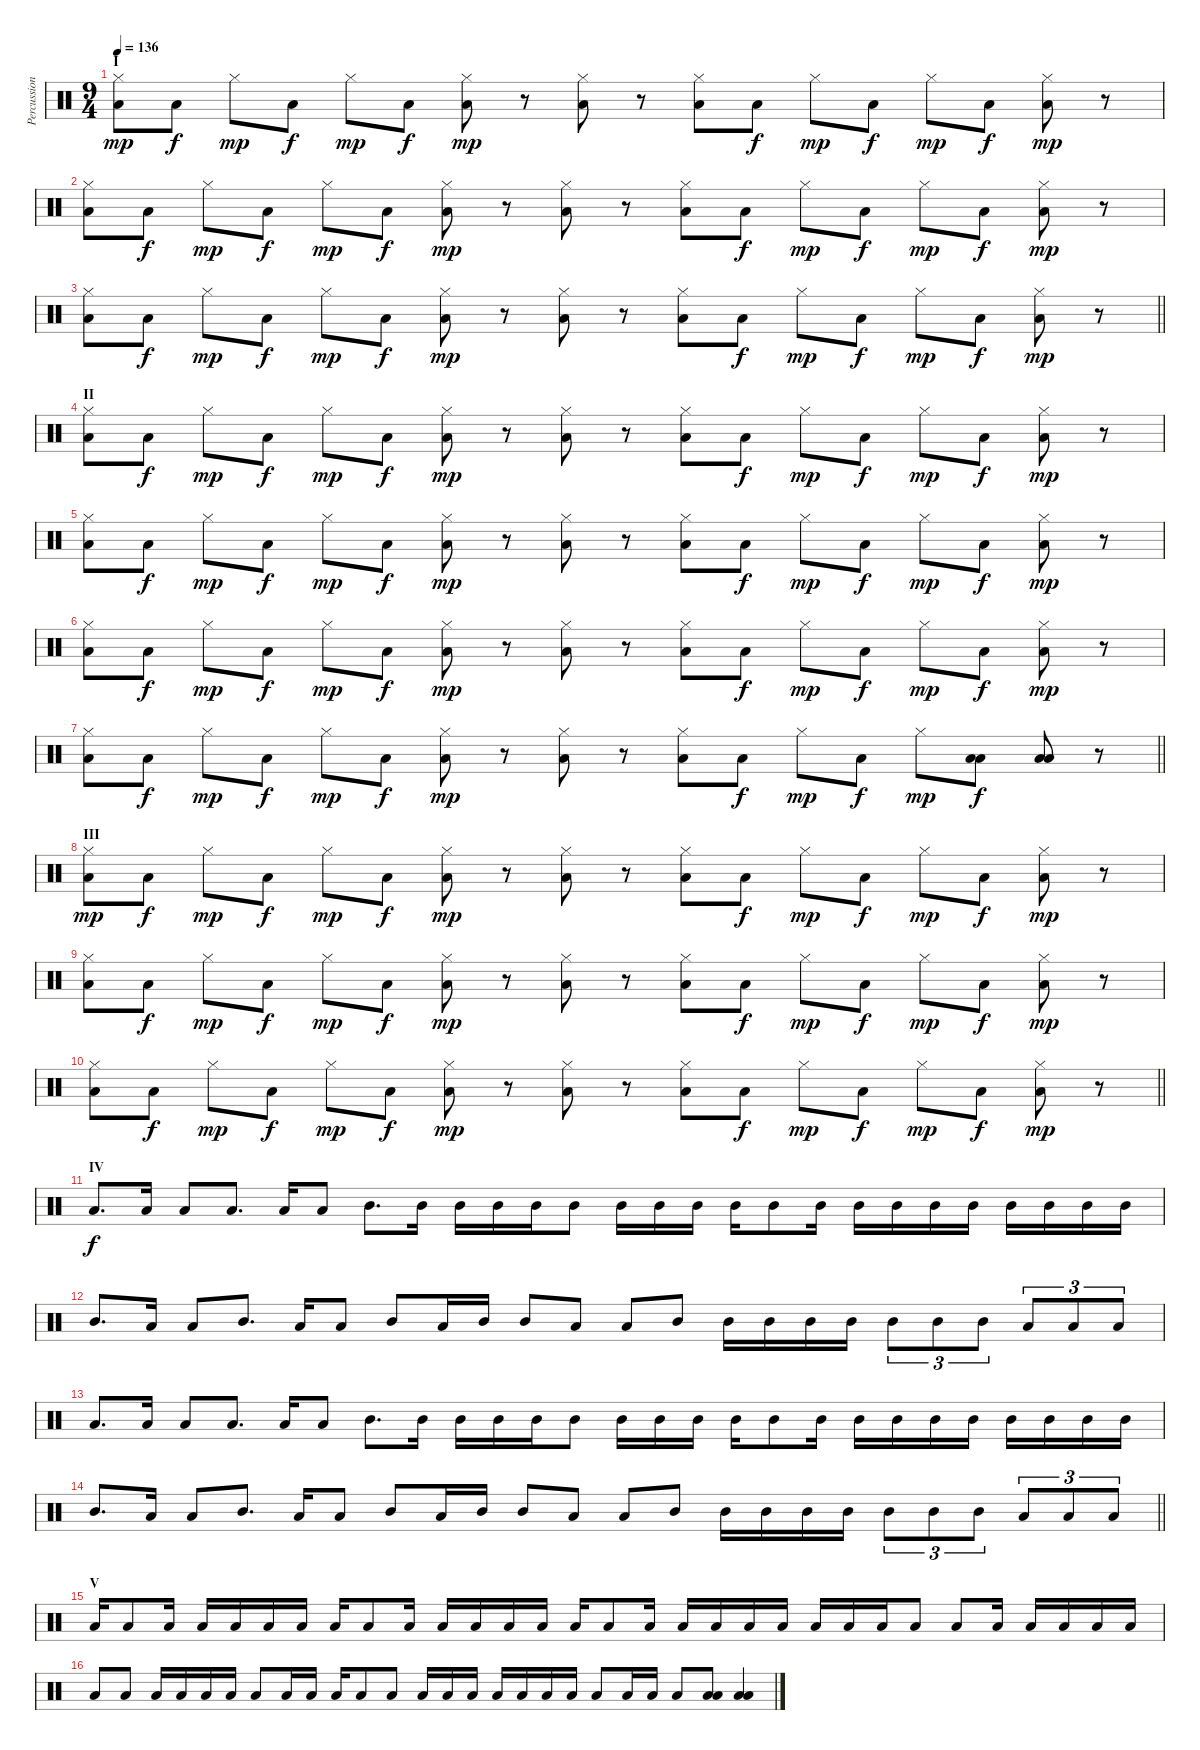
\track ("Percussions" "Percussion") {instrument percussion}
\staff {score}
\articulation defaults
\ts (9 4)
\section ("" "I")
\tempo 136
\clef neutral
\ks c
("Hi-Hat (closed)" "Low Tom (hit)").8{dy mp} "Low Tom (hit)".8{dy f} "Hi-Hat (closed)".8{dy mp} "Low Tom (hit)".8{dy f} "Hi-Hat (closed)".8{dy mp} "Low Tom (hit)".8{dy f} ("Hi-Hat (closed)" "Low Tom (hit)").8{dy mp} r.8 ("Hi-Hat (closed)" "Low Tom (hit)").8 r.8 ("Hi-Hat (closed)" "Low Tom (hit)").8 "Low Tom (hit)".8{dy f} "Hi-Hat (closed)".8{dy mp} "Low Tom (hit)".8{dy f} "Hi-Hat (closed)".8{dy mp} "Low Tom (hit)".8{dy f} ("Hi-Hat (closed)" "Low Tom (hit)").8{dy mp} r.8 |
("Hi-Hat (closed)" "Low Tom (hit)").8 "Low Tom (hit)".8{dy f} "Hi-Hat (closed)".8{dy mp} "Low Tom (hit)".8{dy f} "Hi-Hat (closed)".8{dy mp} "Low Tom (hit)".8{dy f} ("Hi-Hat (closed)" "Low Tom (hit)").8{dy mp} r.8 ("Hi-Hat (closed)" "Low Tom (hit)").8 r.8 ("Hi-Hat (closed)" "Low Tom (hit)").8 "Low Tom (hit)".8{dy f} "Hi-Hat (closed)".8{dy mp} "Low Tom (hit)".8{dy f} "Hi-Hat (closed)".8{dy mp} "Low Tom (hit)".8{dy f} ("Hi-Hat (closed)" "Low Tom (hit)").8{dy mp} r.8 |
\barLineRight lightlight
("Hi-Hat (closed)" "Low Tom (hit)").8 "Low Tom (hit)".8{dy f} "Hi-Hat (closed)".8{dy mp} "Low Tom (hit)".8{dy f} "Hi-Hat (closed)".8{dy mp} "Low Tom (hit)".8{dy f} ("Hi-Hat (closed)" "Low Tom (hit)").8{dy mp} r.8 ("Hi-Hat (closed)" "Low Tom (hit)").8 r.8 ("Hi-Hat (closed)" "Low Tom (hit)").8 "Low Tom (hit)".8{dy f} "Hi-Hat (closed)".8{dy mp} "Low Tom (hit)".8{dy f} "Hi-Hat (closed)".8{dy mp} "Low Tom (hit)".8{dy f} ("Hi-Hat (closed)" "Low Tom (hit)").8{dy mp} r.8 |
\section ("" "II")
("Hi-Hat (closed)" "Low Tom (hit)").8 "Low Tom (hit)".8{dy f} "Hi-Hat (closed)".8{dy mp} "Low Tom (hit)".8{dy f} "Hi-Hat (closed)".8{dy mp} "Low Tom (hit)".8{dy f} ("Hi-Hat (closed)" "Low Tom (hit)").8{dy mp} r.8 ("Hi-Hat (closed)" "Low Tom (hit)").8 r.8 ("Hi-Hat (closed)" "Low Tom (hit)").8 "Low Tom (hit)".8{dy f} "Hi-Hat (closed)".8{dy mp} "Low Tom (hit)".8{dy f} "Hi-Hat (closed)".8{dy mp} "Low Tom (hit)".8{dy f} ("Hi-Hat (closed)" "Low Tom (hit)").8{dy mp} r.8 |
("Hi-Hat (closed)" "Low Tom (hit)").8 "Low Tom (hit)".8{dy f} "Hi-Hat (closed)".8{dy mp} "Low Tom (hit)".8{dy f} "Hi-Hat (closed)".8{dy mp} "Low Tom (hit)".8{dy f} ("Hi-Hat (closed)" "Low Tom (hit)").8{dy mp} r.8 ("Hi-Hat (closed)" "Low Tom (hit)").8 r.8 ("Hi-Hat (closed)" "Low Tom (hit)").8 "Low Tom (hit)".8{dy f} "Hi-Hat (closed)".8{dy mp} "Low Tom (hit)".8{dy f} "Hi-Hat (closed)".8{dy mp} "Low Tom (hit)".8{dy f} ("Hi-Hat (closed)" "Low Tom (hit)").8{dy mp} r.8 |
("Hi-Hat (closed)" "Low Tom (hit)").8 "Low Tom (hit)".8{dy f} "Hi-Hat (closed)".8{dy mp} "Low Tom (hit)".8{dy f} "Hi-Hat (closed)".8{dy mp} "Low Tom (hit)".8{dy f} ("Hi-Hat (closed)" "Low Tom (hit)").8{dy mp} r.8 ("Hi-Hat (closed)" "Low Tom (hit)").8 r.8 ("Hi-Hat (closed)" "Low Tom (hit)").8 "Low Tom (hit)".8{dy f} "Hi-Hat (closed)".8{dy mp} "Low Tom (hit)".8{dy f} "Hi-Hat (closed)".8{dy mp} "Low Tom (hit)".8{dy f} ("Hi-Hat (closed)" "Low Tom (hit)").8{dy mp} r.8 |
\barLineRight lightlight
("Hi-Hat (closed)" "Low Tom (hit)").8 "Low Tom (hit)".8{dy f} "Hi-Hat (closed)".8{dy mp} "Low Tom (hit)".8{dy f} "Hi-Hat (closed)".8{dy mp} "Low Tom (hit)".8{dy f} ("Hi-Hat (closed)" "Low Tom (hit)").8{dy mp} r.8 ("Hi-Hat (closed)" "Low Tom (hit)").8 r.8 ("Hi-Hat (closed)" "Low Tom (hit)").8 "Low Tom (hit)".8{dy f} "Hi-Hat (closed)".8{dy mp} "Low Tom (hit)".8{dy f} "Hi-Hat (closed)".8{dy mp} ("Low Tom (hit)" "Low Tom (hit)").8{dy f} ("Low Tom (hit)" "Low Tom (hit)").8 r.8 |
\section ("" "III")
("Hi-Hat (closed)" "Low Tom (hit)").8{dy mp} "Low Tom (hit)".8{dy f} "Hi-Hat (closed)".8{dy mp} "Low Tom (hit)".8{dy f} "Hi-Hat (closed)".8{dy mp} "Low Tom (hit)".8{dy f} ("Hi-Hat (closed)" "Low Tom (hit)").8{dy mp} r.8 ("Hi-Hat (closed)" "Low Tom (hit)").8 r.8 ("Hi-Hat (closed)" "Low Tom (hit)").8 "Low Tom (hit)".8{dy f} "Hi-Hat (closed)".8{dy mp} "Low Tom (hit)".8{dy f} "Hi-Hat (closed)".8{dy mp} "Low Tom (hit)".8{dy f} ("Hi-Hat (closed)" "Low Tom (hit)").8{dy mp} r.8 |
("Hi-Hat (closed)" "Low Tom (hit)").8 "Low Tom (hit)".8{dy f} "Hi-Hat (closed)".8{dy mp} "Low Tom (hit)".8{dy f} "Hi-Hat (closed)".8{dy mp} "Low Tom (hit)".8{dy f} ("Hi-Hat (closed)" "Low Tom (hit)").8{dy mp} r.8 ("Hi-Hat (closed)" "Low Tom (hit)").8 r.8 ("Hi-Hat (closed)" "Low Tom (hit)").8 "Low Tom (hit)".8{dy f} "Hi-Hat (closed)".8{dy mp} "Low Tom (hit)".8{dy f} "Hi-Hat (closed)".8{dy mp} "Low Tom (hit)".8{dy f} ("Hi-Hat (closed)" "Low Tom (hit)").8{dy mp} r.8 |
\barLineRight lightlight
("Hi-Hat (closed)" "Low Tom (hit)").8 "Low Tom (hit)".8{dy f} "Hi-Hat (closed)".8{dy mp} "Low Tom (hit)".8{dy f} "Hi-Hat (closed)".8{dy mp} "Low Tom (hit)".8{dy f} ("Hi-Hat (closed)" "Low Tom (hit)").8{dy mp} r.8 ("Hi-Hat (closed)" "Low Tom (hit)").8 r.8 ("Hi-Hat (closed)" "Low Tom (hit)").8 "Low Tom (hit)".8{dy f} "Hi-Hat (closed)".8{dy mp} "Low Tom (hit)".8{dy f} "Hi-Hat (closed)".8{dy mp} "Low Tom (hit)".8{dy f} ("Hi-Hat (closed)" "Low Tom (hit)").8{dy mp} r.8 |
\section ("" "IV")
"Low Floor Tom (hit)".8{d dy f} "Low Floor Tom (hit)".16 "Low Floor Tom (hit)".8 "Low Floor Tom (hit)".8{d} "Low Floor Tom (hit)".16 "Low Floor Tom (hit)".8 "Mid Tom (hit)".8{d} "Mid Tom (hit)".16 "Mid Tom (hit)".16 "Mid Tom (hit)".16 "Mid Tom (hit)".16 "Mid Tom (hit)".8 "Mid Tom (hit)".16 "Mid Tom (hit)".16 "Mid Tom (hit)".16 "Mid Tom (hit)".16 "Mid Tom (hit)".8 "Mid Tom (hit)".16 "Mid Tom (hit)".16 "Mid Tom (hit)".16 "Mid Tom (hit)".16 "Mid Tom (hit)".16 "Mid Tom (hit)".16 "Mid Tom (hit)".16 "Mid Tom (hit)".16 "Mid Tom (hit)".16 |
"Mid Tom (hit)".8{d} "Low Floor Tom (hit)".16 "Low Floor Tom (hit)".8 "Mid Tom (hit)".8{d} "Low Floor Tom (hit)".16 "Low Floor Tom (hit)".8 "Mid Tom (hit)".8 "Low Floor Tom (hit)".16 "Mid Tom (hit)".16 "Mid Tom (hit)".8 "Low Floor Tom (hit)".8 "Low Floor Tom (hit)".8 "Mid Tom (hit)".8 "Mid Tom (hit)".16 "Mid Tom (hit)".16 "Mid Tom (hit)".16 "Mid Tom (hit)".16 "Mid Tom (hit)".8{tu (3 2)} "Mid Tom (hit)".8{tu (3 2)} "Mid Tom (hit)".8{tu (3 2)} "Low Tom (hit)".8{tu (3 2)} "Low Tom (hit)".8{tu (3 2)} "Low Tom (hit)".8{tu (3 2)} |
"Low Floor Tom (hit)".8{d} "Low Floor Tom (hit)".16 "Low Floor Tom (hit)".8 "Low Floor Tom (hit)".8{d} "Low Floor Tom (hit)".16 "Low Floor Tom (hit)".8 "Mid Tom (hit)".8{d} "Mid Tom (hit)".16 "Mid Tom (hit)".16 "Mid Tom (hit)".16 "Mid Tom (hit)".16 "Mid Tom (hit)".8 "Mid Tom (hit)".16 "Mid Tom (hit)".16 "Mid Tom (hit)".16 "Mid Tom (hit)".16 "Mid Tom (hit)".8 "Mid Tom (hit)".16 "Mid Tom (hit)".16 "Mid Tom (hit)".16 "Mid Tom (hit)".16 "Mid Tom (hit)".16 "Mid Tom (hit)".16 "Mid Tom (hit)".16 "Mid Tom (hit)".16 "Mid Tom (hit)".16 |
\barLineRight lightlight "Mid Tom (hit)".8{d} "Low Floor Tom (hit)".16 "Low Floor Tom (hit)".8 "Mid Tom (hit)".8{d} "Low Floor Tom (hit)".16 "Low Floor Tom (hit)".8 "Mid Tom (hit)".8 "Low Floor Tom (hit)".16 "Mid Tom (hit)".16 "Mid Tom (hit)".8 "Low Floor Tom (hit)".8 "Low Floor Tom (hit)".8 "Mid Tom (hit)".8 "Mid Tom (hit)".16 "Mid Tom (hit)".16 "Mid Tom (hit)".16 "Mid Tom (hit)".16 "Mid Tom (hit)".8{tu (3 2)} "Mid Tom (hit)".8{tu (3 2)} "Mid Tom (hit)".8{tu (3 2)} "Low Tom (hit)".8{tu (3 2)} "Low Tom (hit)".8{tu (3 2)} "Low Tom (hit)".8{tu (3 2)}
|
\section ("" "V")
"Low Floor Tom (hit)".16 "Low Floor Tom (hit)".8 "Low Floor Tom (hit)".16 "Low Floor Tom (hit)".16 "Low Floor Tom (hit)".16 "Low Floor Tom (hit)".16 "Low Floor Tom (hit)".16 "Low Floor Tom (hit)".16 "Low Floor Tom (hit)".8 "Low Floor Tom (hit)".16 "Low Floor Tom (hit)".16 "Low Floor Tom (hit)".16 "Low Floor Tom (hit)".16 "Low Floor Tom (hit)".16 "Low Floor Tom (hit)".16 "Low Floor Tom (hit)".8 "Low Floor Tom (hit)".16 "Low Floor Tom (hit)".16 "Low Floor Tom (hit)".16 "Low Floor Tom (hit)".16 "Low Floor Tom (hit)".16 "Low Floor Tom (hit)".16 "Low Floor Tom (hit)".16 "Low Floor Tom (hit)".16 "Low Floor Tom (hit)".8 "Low Floor Tom (hit)".8 "Low Floor Tom (hit)".16 "Low Floor Tom (hit)".16 "Low Floor Tom (hit)".16 "Low Floor Tom (hit)".16 "Low Floor Tom (hit)".16 |
"Low Floor Tom (hit)".8 "Low Floor Tom (hit)".8 "Low Floor Tom (hit)".16 "Low Floor Tom (hit)".16 "Low Floor Tom (hit)".16 "Low Floor Tom (hit)".16 "Low Floor Tom (hit)".8 "Low Floor Tom (hit)".16 "Low Floor Tom (hit)".16 "Low Floor Tom (hit)".16 "Low Floor Tom (hit)".8 "Low Floor Tom (hit)".8 "Low Floor Tom (hit)".16 "Low Floor Tom (hit)".16 "Low Floor Tom (hit)".16 "Low Floor Tom (hit)".16 "Low Floor Tom (hit)".16 "Low Floor Tom (hit)".16 "Low Floor Tom (hit)".16 "Low Floor Tom (hit)".8 "Low Floor Tom (hit)".16 "Low Floor Tom (hit)".16 "Low Floor Tom (hit)".8 ("Low Floor Tom (hit)" "Low Floor Tom (hit)").8 ("Low Floor Tom (hit)" "Low Floor Tom (hit)").4
